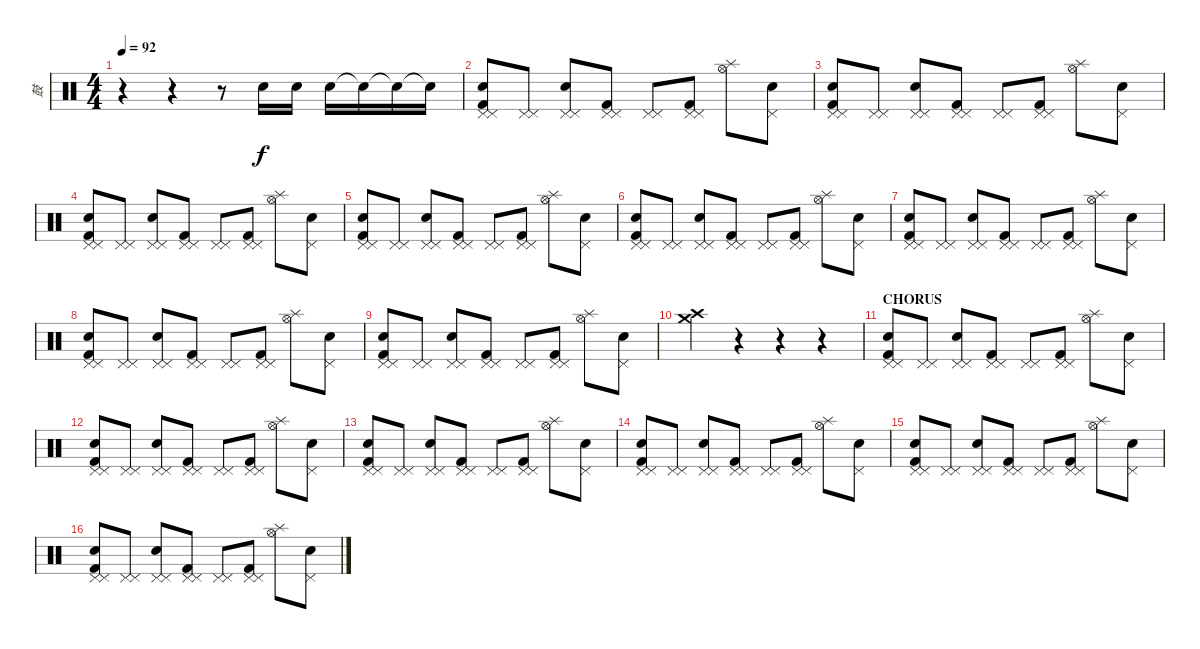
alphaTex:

\track ("鼓" "鼓") {instrument percussion}
\staff {score}
\articulation defaults
\ts (4 4)
\tempo 92
\clef neutral
\ks c
r.4{dy f} r.4 r.8 "Electric Snare (hit)".16 "Electric Snare (hit)".16 "Electric Snare (hit)".16 "Electric Snare (hit)"{t}.16 "Electric Snare (hit)"{t}.16 "Snare (hit)"{t}.16 |
("Pedal Hi-Hat (hit)" "Pedal Hi-Hat (hit)" "Kick (hit) 2" "Snare (hit) 2").8 ("Pedal Hi-Hat (hit)" "Pedal Hi-Hat (hit)").8 ("Pedal Hi-Hat (hit)" "Pedal Hi-Hat (hit)" "Electric Snare (hit)").8 ("Pedal Hi-Hat (hit)" "Pedal Hi-Hat (hit)" "Kick (hit) 2").8 ("Pedal Hi-Hat (hit)" "Pedal Hi-Hat (hit)").8 ("Pedal Hi-Hat (hit)" "Pedal Hi-Hat (hit)" "Kick (hit) 2").8 ("Splash (hit)" "Hi-Hat (open)").8 ("Pedal Hi-Hat (hit)" "Electric Snare (hit)").8 |
("Pedal Hi-Hat (hit)" "Pedal Hi-Hat (hit)" "Kick (hit) 2" "Snare (hit) 2").8 ("Pedal Hi-Hat (hit)" "Pedal Hi-Hat (hit)").8 ("Pedal Hi-Hat (hit)" "Pedal Hi-Hat (hit)" "Electric Snare (hit)").8 ("Pedal Hi-Hat (hit)" "Pedal Hi-Hat (hit)" "Kick (hit) 2").8 ("Pedal Hi-Hat (hit)" "Pedal Hi-Hat (hit)").8 ("Pedal Hi-Hat (hit)" "Pedal Hi-Hat (hit)" "Kick (hit) 2").8 ("Splash (hit)" "Hi-Hat (open)").8 ("Pedal Hi-Hat (hit)" "Electric Snare (hit)").8 |
("Pedal Hi-Hat (hit)" "Pedal Hi-Hat (hit)" "Kick (hit) 2" "Snare (hit) 2").8 ("Pedal Hi-Hat (hit)" "Pedal Hi-Hat (hit)").8 ("Pedal Hi-Hat (hit)" "Pedal Hi-Hat (hit)" "Electric Snare (hit)").8 ("Pedal Hi-Hat (hit)" "Pedal Hi-Hat (hit)" "Kick (hit) 2").8 ("Pedal Hi-Hat (hit)" "Pedal Hi-Hat (hit)").8 ("Pedal Hi-Hat (hit)" "Pedal Hi-Hat (hit)" "Kick (hit) 2").8 ("Splash (hit)" "Hi-Hat (open)").8 ("Pedal Hi-Hat (hit)" "Electric Snare (hit)").8 |
("Pedal Hi-Hat (hit)" "Pedal Hi-Hat (hit)" "Kick (hit) 2" "Snare (hit) 2").8 ("Pedal Hi-Hat (hit)" "Pedal Hi-Hat (hit)").8 ("Pedal Hi-Hat (hit)" "Pedal Hi-Hat (hit)" "Electric Snare (hit)").8 ("Pedal Hi-Hat (hit)" "Pedal Hi-Hat (hit)" "Kick (hit) 2").8 ("Pedal Hi-Hat (hit)" "Pedal Hi-Hat (hit)").8 ("Pedal Hi-Hat (hit)" "Pedal Hi-Hat (hit)" "Kick (hit) 2").8 ("Splash (hit)" "Hi-Hat (open)").8 ("Pedal Hi-Hat (hit)" "Electric Snare (hit)").8 |
("Pedal Hi-Hat (hit)" "Pedal Hi-Hat (hit)" "Kick (hit) 2" "Snare (hit) 2").8 ("Pedal Hi-Hat (hit)" "Pedal Hi-Hat (hit)").8 ("Pedal Hi-Hat (hit)" "Pedal Hi-Hat (hit)" "Electric Snare (hit)").8 ("Pedal Hi-Hat (hit)" "Pedal Hi-Hat (hit)" "Kick (hit) 2").8 ("Pedal Hi-Hat (hit)" "Pedal Hi-Hat (hit)").8 ("Pedal Hi-Hat (hit)" "Pedal Hi-Hat (hit)" "Kick (hit) 2").8 ("Splash (hit)" "Hi-Hat (open)").8 ("Pedal Hi-Hat (hit)" "Electric Snare (hit)").8 |
("Pedal Hi-Hat (hit)" "Pedal Hi-Hat (hit)" "Kick (hit) 2" "Snare (hit) 2").8 ("Pedal Hi-Hat (hit)" "Pedal Hi-Hat (hit)").8 ("Pedal Hi-Hat (hit)" "Pedal Hi-Hat (hit)" "Electric Snare (hit)").8 ("Pedal Hi-Hat (hit)" "Pedal Hi-Hat (hit)" "Kick (hit) 2").8 ("Pedal Hi-Hat (hit)" "Pedal Hi-Hat (hit)").8 ("Pedal Hi-Hat (hit)" "Pedal Hi-Hat (hit)" "Kick (hit) 2").8 ("Splash (hit)" "Hi-Hat (open)").8 ("Pedal Hi-Hat (hit)" "Electric Snare (hit)").8 |
("Pedal Hi-Hat (hit)" "Pedal Hi-Hat (hit)" "Kick (hit) 2" "Snare (hit) 2").8 ("Pedal Hi-Hat (hit)" "Pedal Hi-Hat (hit)").8 ("Pedal Hi-Hat (hit)" "Pedal Hi-Hat (hit)" "Electric Snare (hit)").8 ("Pedal Hi-Hat (hit)" "Pedal Hi-Hat (hit)" "Kick (hit) 2").8 ("Pedal Hi-Hat (hit)" "Pedal Hi-Hat (hit)").8 ("Pedal Hi-Hat (hit)" "Pedal Hi-Hat (hit)" "Kick (hit) 2").8 ("Splash (hit)" "Hi-Hat (open)").8 ("Pedal Hi-Hat (hit)" "Electric Snare (hit)").8 |
("Pedal Hi-Hat (hit)" "Pedal Hi-Hat (hit)" "Kick (hit) 2" "Snare (hit) 2").8 ("Pedal Hi-Hat (hit)" "Pedal Hi-Hat (hit)").8 ("Pedal Hi-Hat (hit)" "Pedal Hi-Hat (hit)" "Electric Snare (hit)").8 ("Pedal Hi-Hat (hit)" "Pedal Hi-Hat (hit)" "Kick (hit) 2").8 ("Pedal Hi-Hat (hit)" "Pedal Hi-Hat (hit)").8 ("Pedal Hi-Hat (hit)" "Pedal Hi-Hat (hit)" "Kick (hit) 2").8 ("Splash (hit)" "Hi-Hat (open)").8 ("Pedal Hi-Hat (hit)" "Electric Snare (hit)").8 |
("Crash high (hit)" "Crash medium (hit)").4 r.4 r.4 r.4 |
\section ("" "CHORUS")
("Pedal Hi-Hat (hit)" "Pedal Hi-Hat (hit)" "Kick (hit) 2" "Snare (hit) 2").8 ("Pedal Hi-Hat (hit)" "Pedal Hi-Hat (hit)").8 ("Pedal Hi-Hat (hit)" "Pedal Hi-Hat (hit)" "Electric Snare (hit)").8 ("Pedal Hi-Hat (hit)" "Pedal Hi-Hat (hit)" "Kick (hit) 2").8 ("Pedal Hi-Hat (hit)" "Pedal Hi-Hat (hit)").8 ("Pedal Hi-Hat (hit)" "Pedal Hi-Hat (hit)" "Kick (hit) 2").8 ("Splash (hit)" "Hi-Hat (open)").8 ("Pedal Hi-Hat (hit)" "Electric Snare (hit)").8 |
("Pedal Hi-Hat (hit)" "Pedal Hi-Hat (hit)" "Kick (hit) 2" "Snare (hit) 2").8 ("Pedal Hi-Hat (hit)" "Pedal Hi-Hat (hit)").8 ("Pedal Hi-Hat (hit)" "Pedal Hi-Hat (hit)" "Electric Snare (hit)").8 ("Pedal Hi-Hat (hit)" "Pedal Hi-Hat (hit)" "Kick (hit) 2").8 ("Pedal Hi-Hat (hit)" "Pedal Hi-Hat (hit)").8 ("Pedal Hi-Hat (hit)" "Pedal Hi-Hat (hit)" "Kick (hit) 2").8 ("Splash (hit)" "Hi-Hat (open)").8 ("Pedal Hi-Hat (hit)" "Electric Snare (hit)").8 |
("Pedal Hi-Hat (hit)" "Pedal Hi-Hat (hit)" "Kick (hit) 2" "Snare (hit) 2").8 ("Pedal Hi-Hat (hit)" "Pedal Hi-Hat (hit)").8 ("Pedal Hi-Hat (hit)" "Pedal Hi-Hat (hit)" "Electric Snare (hit)").8 ("Pedal Hi-Hat (hit)" "Pedal Hi-Hat (hit)" "Kick (hit) 2").8 ("Pedal Hi-Hat (hit)" "Pedal Hi-Hat (hit)").8 ("Pedal Hi-Hat (hit)" "Pedal Hi-Hat (hit)" "Kick (hit) 2").8 ("Splash (hit)" "Hi-Hat (open)").8 ("Pedal Hi-Hat (hit)" "Electric Snare (hit)").8 |
("Pedal Hi-Hat (hit)" "Pedal Hi-Hat (hit)" "Kick (hit) 2" "Snare (hit) 2").8 ("Pedal Hi-Hat (hit)" "Pedal Hi-Hat (hit)").8 ("Pedal Hi-Hat (hit)" "Pedal Hi-Hat (hit)" "Electric Snare (hit)").8 ("Pedal Hi-Hat (hit)" "Pedal Hi-Hat (hit)" "Kick (hit) 2").8 ("Pedal Hi-Hat (hit)" "Pedal Hi-Hat (hit)").8 ("Pedal Hi-Hat (hit)" "Pedal Hi-Hat (hit)" "Kick (hit) 2").8 ("Splash (hit)" "Hi-Hat (open)").8 ("Pedal Hi-Hat (hit)" "Electric Snare (hit)").8 |
("Pedal Hi-Hat (hit)" "Pedal Hi-Hat (hit)" "Kick (hit) 2" "Snare (hit) 2").8 ("Pedal Hi-Hat (hit)" "Pedal Hi-Hat (hit)").8 ("Pedal Hi-Hat (hit)" "Pedal Hi-Hat (hit)" "Electric Snare (hit)").8 ("Pedal Hi-Hat (hit)" "Pedal Hi-Hat (hit)" "Kick (hit) 2").8 ("Pedal Hi-Hat (hit)" "Pedal Hi-Hat (hit)").8 ("Pedal Hi-Hat (hit)" "Pedal Hi-Hat (hit)" "Kick (hit) 2").8 ("Splash (hit)" "Hi-Hat (open)").8 ("Pedal Hi-Hat (hit)" "Electric Snare (hit)").8 |
("Pedal Hi-Hat (hit)" "Pedal Hi-Hat (hit)" "Kick (hit) 2" "Snare (hit) 2").8 ("Pedal Hi-Hat (hit)" "Pedal Hi-Hat (hit)").8 ("Pedal Hi-Hat (hit)" "Pedal Hi-Hat (hit)" "Electric Snare (hit)").8 ("Pedal Hi-Hat (hit)" "Pedal Hi-Hat (hit)" "Kick (hit) 2").8 ("Pedal Hi-Hat (hit)" "Pedal Hi-Hat (hit)").8 ("Pedal Hi-Hat (hit)" "Pedal Hi-Hat (hit)" "Kick (hit) 2").8 ("Splash (hit)" "Hi-Hat (open)").8 ("Pedal Hi-Hat (hit)" "Electric Snare (hit)").8
